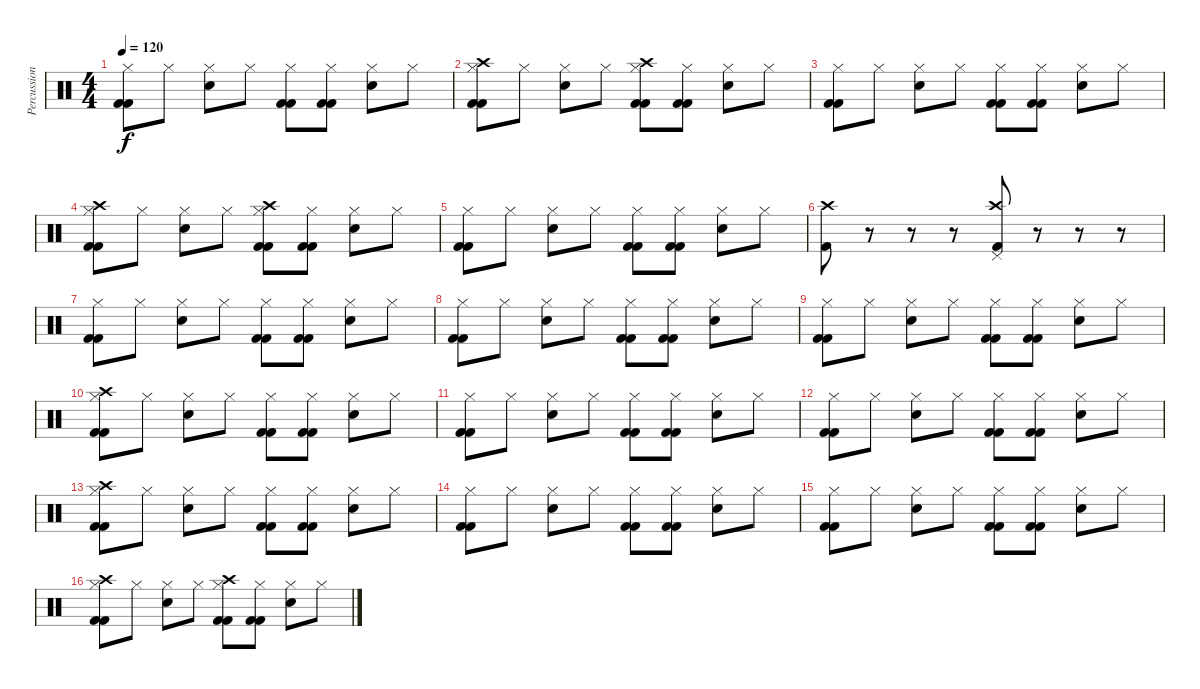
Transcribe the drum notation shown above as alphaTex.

\track ("Percussion" "Percussion") {instrument percussion}
\staff {score}
\articulation defaults
\ts (4 4)
\tempo 120
\clef neutral
\ks c
("Kick (hit) 2" "Hi-Hat (closed)" "Kick (hit) 2").8{dy f} "Hi-Hat (closed)".8 ("Snare (hit) 2" "Hi-Hat (closed)").8 "Hi-Hat (closed)".8 ("Kick (hit) 2" "Hi-Hat (closed)" "Kick (hit) 2").8 ("Kick (hit) 2" "Hi-Hat (closed)" "Kick (hit) 2").8 ("Snare (hit) 2" "Hi-Hat (closed)").8 "Hi-Hat (closed)".8 |
("Kick (hit) 2" "Hi-Hat (closed)" "Kick (hit) 2" "Crash high (hit)").8 "Hi-Hat (closed)".8 ("Snare (hit) 2" "Hi-Hat (closed)").8 "Hi-Hat (closed)".8 ("Kick (hit) 2" "Hi-Hat (closed)" "Kick (hit) 2" "Crash high (hit)").8 ("Kick (hit) 2" "Hi-Hat (closed)" "Kick (hit) 2").8 ("Snare (hit) 2" "Hi-Hat (closed)").8 "Hi-Hat (closed)".8 |
("Kick (hit) 2" "Hi-Hat (closed)" "Kick (hit) 2").8 "Hi-Hat (closed)".8 ("Snare (hit) 2" "Hi-Hat (closed)").8 "Hi-Hat (closed)".8 ("Kick (hit) 2" "Hi-Hat (closed)" "Kick (hit) 2").8 ("Kick (hit) 2" "Hi-Hat (closed)" "Kick (hit) 2").8 ("Snare (hit) 2" "Hi-Hat (closed)").8 "Hi-Hat (closed)".8 |
("Kick (hit) 2" "Hi-Hat (closed)" "Kick (hit) 2" "Crash high (hit)").8 "Hi-Hat (closed)".8 ("Snare (hit) 2" "Hi-Hat (closed)").8 "Hi-Hat (closed)".8 ("Kick (hit) 2" "Hi-Hat (closed)" "Kick (hit) 2" "Crash high (hit)").8 ("Kick (hit) 2" "Hi-Hat (closed)" "Kick (hit) 2").8 ("Snare (hit) 2" "Hi-Hat (closed)").8 "Hi-Hat (closed)".8 |
("Kick (hit) 2" "Hi-Hat (closed)" "Kick (hit) 2").8 "Hi-Hat (closed)".8 ("Snare (hit) 2" "Hi-Hat (closed)").8 "Hi-Hat (closed)".8 ("Kick (hit) 2" "Hi-Hat (closed)" "Kick (hit) 2").8 ("Kick (hit) 2" "Hi-Hat (closed)" "Kick (hit) 2").8 ("Snare (hit) 2" "Hi-Hat (closed)").8 "Hi-Hat (closed)".8 |
("Crash high (hit)" "Kick (hit) 2").8 r.8 r.8 r.8 ("Crash high (hit)" "Pedal Hi-Hat (hit)" "Kick (hit) 2").8 r.8 r.8 r.8 |
("Kick (hit) 2" "Hi-Hat (closed)" "Kick (hit) 2").8 "Hi-Hat (closed)".8 ("Snare (hit) 2" "Hi-Hat (closed)").8 "Hi-Hat (closed)".8 ("Kick (hit) 2" "Hi-Hat (closed)" "Kick (hit) 2").8 ("Kick (hit) 2" "Hi-Hat (closed)" "Kick (hit) 2").8 ("Snare (hit) 2" "Hi-Hat (closed)").8 "Hi-Hat (closed)".8 |
("Kick (hit) 2" "Hi-Hat (closed)" "Kick (hit) 2").8 "Hi-Hat (closed)".8 ("Snare (hit) 2" "Hi-Hat (closed)").8 "Hi-Hat (closed)".8 ("Kick (hit) 2" "Hi-Hat (closed)" "Kick (hit) 2").8 ("Kick (hit) 2" "Hi-Hat (closed)" "Kick (hit) 2").8 ("Snare (hit) 2" "Hi-Hat (closed)").8 "Hi-Hat (closed)".8 |
("Kick (hit) 2" "Hi-Hat (closed)" "Kick (hit) 2").8 "Hi-Hat (closed)".8 ("Snare (hit) 2" "Hi-Hat (closed)").8 "Hi-Hat (closed)".8 ("Kick (hit) 2" "Hi-Hat (closed)" "Kick (hit) 2").8 ("Kick (hit) 2" "Hi-Hat (closed)" "Kick (hit) 2").8 ("Snare (hit) 2" "Hi-Hat (closed)").8 "Hi-Hat (closed)".8 |
("Kick (hit) 2" "Hi-Hat (closed)" "Kick (hit) 2" "Crash high (hit)").8 "Hi-Hat (closed)".8 ("Snare (hit) 2" "Hi-Hat (closed)").8 "Hi-Hat (closed)".8 ("Kick (hit) 2" "Hi-Hat (closed)" "Kick (hit) 2").8 ("Kick (hit) 2" "Hi-Hat (closed)" "Kick (hit) 2").8 ("Snare (hit) 2" "Hi-Hat (closed)").8 "Hi-Hat (closed)".8 |
("Kick (hit) 2" "Hi-Hat (closed)" "Kick (hit) 2").8 "Hi-Hat (closed)".8 ("Snare (hit) 2" "Hi-Hat (closed)").8 "Hi-Hat (closed)".8 ("Kick (hit) 2" "Hi-Hat (closed)" "Kick (hit) 2").8 ("Kick (hit) 2" "Hi-Hat (closed)" "Kick (hit) 2").8 ("Snare (hit) 2" "Hi-Hat (closed)").8 "Hi-Hat (closed)".8 |
("Kick (hit) 2" "Hi-Hat (closed)" "Kick (hit) 2").8 "Hi-Hat (closed)".8 ("Snare (hit) 2" "Hi-Hat (closed)").8 "Hi-Hat (closed)".8 ("Kick (hit) 2" "Hi-Hat (closed)" "Kick (hit) 2").8 ("Kick (hit) 2" "Hi-Hat (closed)" "Kick (hit) 2").8 ("Snare (hit) 2" "Hi-Hat (closed)").8 "Hi-Hat (closed)".8 |
("Kick (hit) 2" "Hi-Hat (closed)" "Kick (hit) 2" "Crash high (hit)").8 "Hi-Hat (closed)".8 ("Snare (hit) 2" "Hi-Hat (closed)").8 "Hi-Hat (closed)".8 ("Kick (hit) 2" "Hi-Hat (closed)" "Kick (hit) 2").8 ("Kick (hit) 2" "Hi-Hat (closed)" "Kick (hit) 2").8 ("Snare (hit) 2" "Hi-Hat (closed)").8 "Hi-Hat (closed)".8 |
("Kick (hit) 2" "Hi-Hat (closed)" "Kick (hit) 2").8 "Hi-Hat (closed)".8 ("Snare (hit) 2" "Hi-Hat (closed)").8 "Hi-Hat (closed)".8 ("Kick (hit) 2" "Hi-Hat (closed)" "Kick (hit) 2").8 ("Kick (hit) 2" "Hi-Hat (closed)" "Kick (hit) 2").8 ("Snare (hit) 2" "Hi-Hat (closed)").8 "Hi-Hat (closed)".8 |
("Kick (hit) 2" "Hi-Hat (closed)" "Kick (hit) 2").8 "Hi-Hat (closed)".8 ("Snare (hit) 2" "Hi-Hat (closed)").8 "Hi-Hat (closed)".8 ("Kick (hit) 2" "Hi-Hat (closed)" "Kick (hit) 2").8 ("Kick (hit) 2" "Hi-Hat (closed)" "Kick (hit) 2").8 ("Snare (hit) 2" "Hi-Hat (closed)").8 "Hi-Hat (closed)".8 |
("Kick (hit) 2" "Hi-Hat (closed)" "Kick (hit) 2" "Crash high (hit)").8 "Hi-Hat (closed)".8 ("Snare (hit) 2" "Hi-Hat (closed)").8 "Hi-Hat (closed)".8 ("Kick (hit) 2" "Hi-Hat (closed)" "Kick (hit) 2" "Crash high (hit)").8 ("Kick (hit) 2" "Hi-Hat (closed)" "Kick (hit) 2").8 ("Snare (hit) 2" "Hi-Hat (closed)").8 "Hi-Hat (closed)".8
